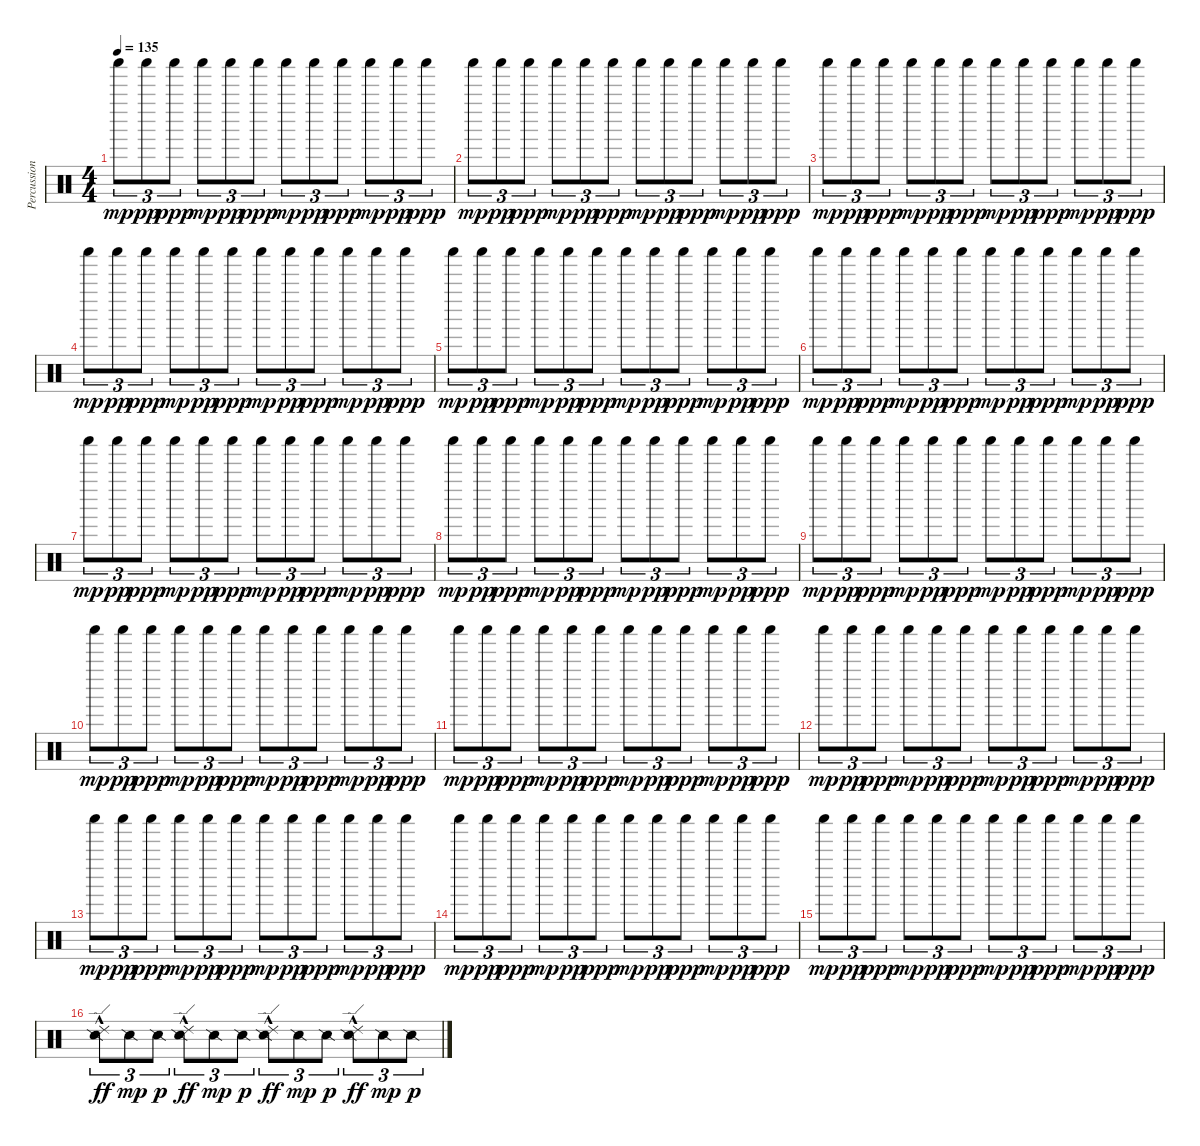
\track ("Percussion" "Percussion") {instrument percussion}
\staff {score}
\articulation defaults
\ts (4 4)
\tempo 135
\clef neutral
\ks c "Shaker (hit)".8{tu (3 2) dy mp} "Shaker (hit)".8{tu (3 2) dy pp} "Shaker (hit)".8{tu (3 2) dy ppp} "Shaker (hit)".8{tu (3 2) dy mp} "Shaker (hit)".8{tu (3 2) dy pp} "Shaker (hit)".8{tu (3 2) dy ppp} "Shaker (hit)".8{tu (3 2) dy mp} "Shaker (hit)".8{tu (3 2) dy pp} "Shaker (hit)".8{tu (3 2) dy ppp} "Shaker (hit)".8{tu (3 2) dy mp} "Shaker (hit)".8{tu (3 2) dy pp} "Shaker (hit)".8{tu (3 2) dy ppp}
|
"Shaker (hit)".8{tu (3 2) dy mp} "Shaker (hit)".8{tu (3 2) dy pp} "Shaker (hit)".8{tu (3 2) dy ppp} "Shaker (hit)".8{tu (3 2) dy mp} "Shaker (hit)".8{tu (3 2) dy pp} "Shaker (hit)".8{tu (3 2) dy ppp} "Shaker (hit)".8{tu (3 2) dy mp} "Shaker (hit)".8{tu (3 2) dy pp} "Shaker (hit)".8{tu (3 2) dy ppp} "Shaker (hit)".8{tu (3 2) dy mp} "Shaker (hit)".8{tu (3 2) dy pp} "Shaker (hit)".8{tu (3 2) dy ppp} |
"Shaker (hit)".8{tu (3 2) dy mp} "Shaker (hit)".8{tu (3 2) dy pp} "Shaker (hit)".8{tu (3 2) dy ppp} "Shaker (hit)".8{tu (3 2) dy mp} "Shaker (hit)".8{tu (3 2) dy pp} "Shaker (hit)".8{tu (3 2) dy ppp} "Shaker (hit)".8{tu (3 2) dy mp} "Shaker (hit)".8{tu (3 2) dy pp} "Shaker (hit)".8{tu (3 2) dy ppp} "Shaker (hit)".8{tu (3 2) dy mp} "Shaker (hit)".8{tu (3 2) dy pp} "Shaker (hit)".8{tu (3 2) dy ppp} |
"Shaker (hit)".8{tu (3 2) dy mp} "Shaker (hit)".8{tu (3 2) dy pp} "Shaker (hit)".8{tu (3 2) dy ppp} "Shaker (hit)".8{tu (3 2) dy mp} "Shaker (hit)".8{tu (3 2) dy pp} "Shaker (hit)".8{tu (3 2) dy ppp} "Shaker (hit)".8{tu (3 2) dy mp} "Shaker (hit)".8{tu (3 2) dy pp} "Shaker (hit)".8{tu (3 2) dy ppp} "Shaker (hit)".8{tu (3 2) dy mp} "Shaker (hit)".8{tu (3 2) dy pp} "Shaker (hit)".8{tu (3 2) dy ppp} |
"Shaker (hit)".8{tu (3 2) dy mp} "Shaker (hit)".8{tu (3 2) dy pp} "Shaker (hit)".8{tu (3 2) dy ppp} "Shaker (hit)".8{tu (3 2) dy mp} "Shaker (hit)".8{tu (3 2) dy pp} "Shaker (hit)".8{tu (3 2) dy ppp} "Shaker (hit)".8{tu (3 2) dy mp} "Shaker (hit)".8{tu (3 2) dy pp} "Shaker (hit)".8{tu (3 2) dy ppp} "Shaker (hit)".8{tu (3 2) dy mp} "Shaker (hit)".8{tu (3 2) dy pp} "Shaker (hit)".8{tu (3 2) dy ppp} |
"Shaker (hit)".8{tu (3 2) dy mp} "Shaker (hit)".8{tu (3 2) dy pp} "Shaker (hit)".8{tu (3 2) dy ppp} "Shaker (hit)".8{tu (3 2) dy mp} "Shaker (hit)".8{tu (3 2) dy pp} "Shaker (hit)".8{tu (3 2) dy ppp} "Shaker (hit)".8{tu (3 2) dy mp} "Shaker (hit)".8{tu (3 2) dy pp} "Shaker (hit)".8{tu (3 2) dy ppp} "Shaker (hit)".8{tu (3 2) dy mp} "Shaker (hit)".8{tu (3 2) dy pp} "Shaker (hit)".8{tu (3 2) dy ppp} |
"Shaker (hit)".8{tu (3 2) dy mp} "Shaker (hit)".8{tu (3 2) dy pp} "Shaker (hit)".8{tu (3 2) dy ppp} "Shaker (hit)".8{tu (3 2) dy mp} "Shaker (hit)".8{tu (3 2) dy pp} "Shaker (hit)".8{tu (3 2) dy ppp} "Shaker (hit)".8{tu (3 2) dy mp} "Shaker (hit)".8{tu (3 2) dy pp} "Shaker (hit)".8{tu (3 2) dy ppp} "Shaker (hit)".8{tu (3 2) dy mp} "Shaker (hit)".8{tu (3 2) dy pp} "Shaker (hit)".8{tu (3 2) dy ppp} |
"Shaker (hit)".8{tu (3 2) dy mp} "Shaker (hit)".8{tu (3 2) dy pp} "Shaker (hit)".8{tu (3 2) dy ppp} "Shaker (hit)".8{tu (3 2) dy mp} "Shaker (hit)".8{tu (3 2) dy pp} "Shaker (hit)".8{tu (3 2) dy ppp} "Shaker (hit)".8{tu (3 2) dy mp} "Shaker (hit)".8{tu (3 2) dy pp} "Shaker (hit)".8{tu (3 2) dy ppp} "Shaker (hit)".8{tu (3 2) dy mp} "Shaker (hit)".8{tu (3 2) dy pp} "Shaker (hit)".8{tu (3 2) dy ppp} |
"Shaker (hit)".8{tu (3 2) dy mp} "Shaker (hit)".8{tu (3 2) dy pp} "Shaker (hit)".8{tu (3 2) dy ppp} "Shaker (hit)".8{tu (3 2) dy mp} "Shaker (hit)".8{tu (3 2) dy pp} "Shaker (hit)".8{tu (3 2) dy ppp} "Shaker (hit)".8{tu (3 2) dy mp} "Shaker (hit)".8{tu (3 2) dy pp} "Shaker (hit)".8{tu (3 2) dy ppp} "Shaker (hit)".8{tu (3 2) dy mp} "Shaker (hit)".8{tu (3 2) dy pp} "Shaker (hit)".8{tu (3 2) dy ppp} |
"Shaker (hit)".8{tu (3 2) dy mp} "Shaker (hit)".8{tu (3 2) dy pp} "Shaker (hit)".8{tu (3 2) dy ppp} "Shaker (hit)".8{tu (3 2) dy mp} "Shaker (hit)".8{tu (3 2) dy pp} "Shaker (hit)".8{tu (3 2) dy ppp} "Shaker (hit)".8{tu (3 2) dy mp} "Shaker (hit)".8{tu (3 2) dy pp} "Shaker (hit)".8{tu (3 2) dy ppp} "Shaker (hit)".8{tu (3 2) dy mp} "Shaker (hit)".8{tu (3 2) dy pp} "Shaker (hit)".8{tu (3 2) dy ppp} |
"Shaker (hit)".8{tu (3 2) dy mp} "Shaker (hit)".8{tu (3 2) dy pp} "Shaker (hit)".8{tu (3 2) dy ppp} "Shaker (hit)".8{tu (3 2) dy mp} "Shaker (hit)".8{tu (3 2) dy pp} "Shaker (hit)".8{tu (3 2) dy ppp} "Shaker (hit)".8{tu (3 2) dy mp} "Shaker (hit)".8{tu (3 2) dy pp} "Shaker (hit)".8{tu (3 2) dy ppp} "Shaker (hit)".8{tu (3 2) dy mp} "Shaker (hit)".8{tu (3 2) dy pp} "Shaker (hit)".8{tu (3 2) dy ppp} |
"Shaker (hit)".8{tu (3 2) dy mp} "Shaker (hit)".8{tu (3 2) dy pp} "Shaker (hit)".8{tu (3 2) dy ppp} "Shaker (hit)".8{tu (3 2) dy mp} "Shaker (hit)".8{tu (3 2) dy pp} "Shaker (hit)".8{tu (3 2) dy ppp} "Shaker (hit)".8{tu (3 2) dy mp} "Shaker (hit)".8{tu (3 2) dy pp} "Shaker (hit)".8{tu (3 2) dy ppp} "Shaker (hit)".8{tu (3 2) dy mp} "Shaker (hit)".8{tu (3 2) dy pp} "Shaker (hit)".8{tu (3 2) dy ppp} |
"Shaker (hit)".8{tu (3 2) dy mp} "Shaker (hit)".8{tu (3 2) dy pp} "Shaker (hit)".8{tu (3 2) dy ppp} "Shaker (hit)".8{tu (3 2) dy mp} "Shaker (hit)".8{tu (3 2) dy pp} "Shaker (hit)".8{tu (3 2) dy ppp} "Shaker (hit)".8{tu (3 2) dy mp} "Shaker (hit)".8{tu (3 2) dy pp} "Shaker (hit)".8{tu (3 2) dy ppp} "Shaker (hit)".8{tu (3 2) dy mp} "Shaker (hit)".8{tu (3 2) dy pp} "Shaker (hit)".8{tu (3 2) dy ppp} |
"Shaker (hit)".8{tu (3 2) dy mp} "Shaker (hit)".8{tu (3 2) dy pp} "Shaker (hit)".8{tu (3 2) dy ppp} "Shaker (hit)".8{tu (3 2) dy mp} "Shaker (hit)".8{tu (3 2) dy pp} "Shaker (hit)".8{tu (3 2) dy ppp} "Shaker (hit)".8{tu (3 2) dy mp} "Shaker (hit)".8{tu (3 2) dy pp} "Shaker (hit)".8{tu (3 2) dy ppp} "Shaker (hit)".8{tu (3 2) dy mp} "Shaker (hit)".8{tu (3 2) dy pp} "Shaker (hit)".8{tu (3 2) dy ppp} |
"Shaker (hit)".8{tu (3 2) dy mp} "Shaker (hit)".8{tu (3 2) dy pp} "Shaker (hit)".8{tu (3 2) dy ppp} "Shaker (hit)".8{tu (3 2) dy mp} "Shaker (hit)".8{tu (3 2) dy pp} "Shaker (hit)".8{tu (3 2) dy ppp} "Shaker (hit)".8{tu (3 2) dy mp} "Shaker (hit)".8{tu (3 2) dy pp} "Shaker (hit)".8{tu (3 2) dy ppp} "Shaker (hit)".8{tu (3 2) dy mp} "Shaker (hit)".8{tu (3 2) dy pp} "Shaker (hit)".8{tu (3 2) dy ppp} |
("Snare (side stick) 2" "Ride (edge) 2"{hac}).8{tu (3 2) dy ff} "Snare (side stick) 2".8{tu (3 2) dy mp} "Snare (side stick) 2".8{tu (3 2) dy p} ("Snare (side stick) 2" "Ride (edge) 2"{hac}).8{tu (3 2) dy ff} "Snare (side stick) 2".8{tu (3 2) dy mp} "Snare (side stick) 2".8{tu (3 2) dy p} ("Snare (side stick) 2" "Ride (edge) 2"{hac}).8{tu (3 2) dy ff} "Snare (side stick) 2".8{tu (3 2) dy mp} "Snare (side stick) 2".8{tu (3 2) dy p} ("Snare (side stick) 2" "Ride (edge) 2"{hac}).8{tu (3 2) dy ff} "Snare (side stick) 2".8{tu (3 2) dy mp} "Snare (side stick) 2".8{tu (3 2) dy p}
